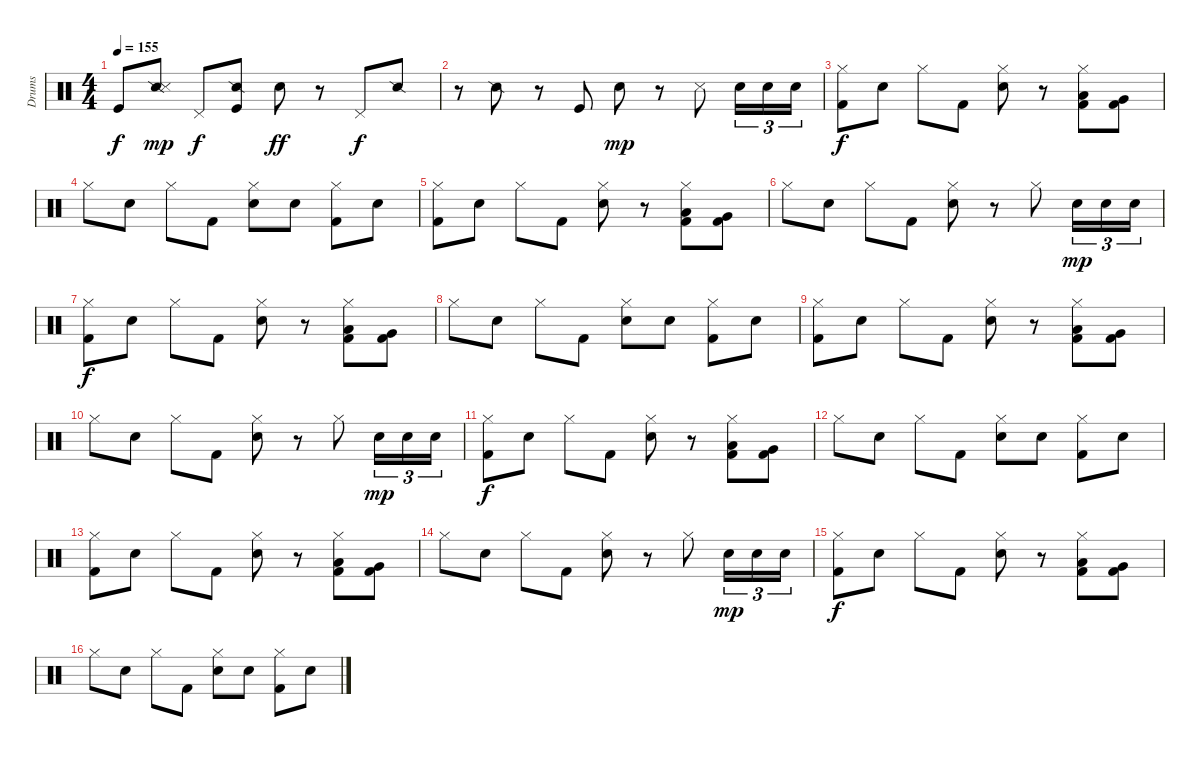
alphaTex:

\track ("Drums" "Drums") {instrument percussion}
\staff {score}
\articulation defaults
\ts (4 4)
\tempo 155
\clef neutral
\ks c "Kick (hit)".8{dy f}
("Snare (side stick) 2" "Snare (side stick) 3").8{dy mp} "Pedal Hi-Hat (hit)".8{dy f} ("Snare (side stick) 2" "Kick (hit)").8 "Electric Snare (hit)".8{dy ff} r.8 "Pedal Hi-Hat (hit)".8{dy f} "Snare (side stick) 2".8 |
r.8 "Snare (side stick) 2".8 r.8 "Kick (hit)".8 "Electric Snare (hit)".8{dy mp} r.8 "Snare (side stick) 3".8 "Electric Snare (hit)".16{tu (3 2)} "Electric Snare (hit)".16{tu (3 2)} "Electric Snare (hit)".16{tu (3 2)} |
("Hi-Hat (closed)" "Kick (hit) 2").8{dy f} "Electric Snare (hit)".8 "Hi-Hat (closed)".8 "Kick (hit) 2".8 ("Hi-Hat (closed)" "Electric Snare (hit)").8 r.8 ("Hi-Hat (closed)" "Low Tom (hit)" "Kick (hit) 2").8 ("Very Low Tom (hit)" "Kick (hit) 2").8 |
"Hi-Hat (closed)".8 "Electric Snare (hit)".8 "Hi-Hat (closed)".8 "Kick (hit) 2".8 ("Hi-Hat (closed)" "Electric Snare (hit)").8 "Electric Snare (hit)".8 ("Hi-Hat (closed)" "Kick (hit) 2").8 "Electric Snare (hit)".8 |
("Hi-Hat (closed)" "Kick (hit) 2").8 "Electric Snare (hit)".8 "Hi-Hat (closed)".8 "Kick (hit) 2".8 ("Hi-Hat (closed)" "Electric Snare (hit)").8 r.8 ("Hi-Hat (closed)" "Low Tom (hit)" "Kick (hit) 2").8 ("Very Low Tom (hit)" "Kick (hit) 2").8 |
"Hi-Hat (closed)".8 "Electric Snare (hit)".8 "Hi-Hat (closed)".8 "Kick (hit) 2".8 ("Hi-Hat (closed)" "Electric Snare (hit)").8 r.8 "Hi-Hat (closed)".8 "Electric Snare (hit)".16{tu (3 2) dy mp} "Electric Snare (hit)".16{tu (3 2)} "Electric Snare (hit)".16{tu (3 2)} |
("Hi-Hat (closed)" "Kick (hit) 2").8{dy f} "Electric Snare (hit)".8 "Hi-Hat (closed)".8 "Kick (hit) 2".8 ("Hi-Hat (closed)" "Electric Snare (hit)").8 r.8 ("Hi-Hat (closed)" "Low Tom (hit)" "Kick (hit) 2").8 ("Very Low Tom (hit)" "Kick (hit) 2").8 |
"Hi-Hat (closed)".8 "Electric Snare (hit)".8 "Hi-Hat (closed)".8 "Kick (hit) 2".8 ("Hi-Hat (closed)" "Electric Snare (hit)").8 "Electric Snare (hit)".8 ("Hi-Hat (closed)" "Kick (hit) 2").8 "Electric Snare (hit)".8 |
("Hi-Hat (closed)" "Kick (hit) 2").8 "Electric Snare (hit)".8 "Hi-Hat (closed)".8 "Kick (hit) 2".8 ("Hi-Hat (closed)" "Electric Snare (hit)").8 r.8 ("Hi-Hat (closed)" "Low Tom (hit)" "Kick (hit) 2").8 ("Very Low Tom (hit)" "Kick (hit) 2").8 |
"Hi-Hat (closed)".8 "Electric Snare (hit)".8 "Hi-Hat (closed)".8 "Kick (hit) 2".8 ("Hi-Hat (closed)" "Electric Snare (hit)").8 r.8 "Hi-Hat (closed)".8 "Electric Snare (hit)".16{tu (3 2) dy mp} "Electric Snare (hit)".16{tu (3 2)} "Electric Snare (hit)".16{tu (3 2)} |
("Hi-Hat (closed)" "Kick (hit) 2").8{dy f} "Electric Snare (hit)".8 "Hi-Hat (closed)".8 "Kick (hit) 2".8 ("Hi-Hat (closed)" "Electric Snare (hit)").8 r.8 ("Hi-Hat (closed)" "Low Tom (hit)" "Kick (hit) 2").8 ("Very Low Tom (hit)" "Kick (hit) 2").8 |
"Hi-Hat (closed)".8 "Electric Snare (hit)".8 "Hi-Hat (closed)".8 "Kick (hit) 2".8 ("Hi-Hat (closed)" "Electric Snare (hit)").8 "Electric Snare (hit)".8 ("Hi-Hat (closed)" "Kick (hit) 2").8 "Electric Snare (hit)".8 |
("Hi-Hat (closed)" "Kick (hit) 2").8 "Electric Snare (hit)".8 "Hi-Hat (closed)".8 "Kick (hit) 2".8 ("Hi-Hat (closed)" "Electric Snare (hit)").8 r.8 ("Hi-Hat (closed)" "Low Tom (hit)" "Kick (hit) 2").8 ("Very Low Tom (hit)" "Kick (hit) 2").8 |
"Hi-Hat (closed)".8 "Electric Snare (hit)".8 "Hi-Hat (closed)".8 "Kick (hit) 2".8 ("Hi-Hat (closed)" "Electric Snare (hit)").8 r.8 "Hi-Hat (closed)".8 "Electric Snare (hit)".16{tu (3 2) dy mp} "Electric Snare (hit)".16{tu (3 2)} "Electric Snare (hit)".16{tu (3 2)} |
("Hi-Hat (closed)" "Kick (hit) 2").8{dy f} "Electric Snare (hit)".8 "Hi-Hat (closed)".8 "Kick (hit) 2".8 ("Hi-Hat (closed)" "Electric Snare (hit)").8 r.8 ("Hi-Hat (closed)" "Low Tom (hit)" "Kick (hit) 2").8 ("Very Low Tom (hit)" "Kick (hit) 2").8 |
"Hi-Hat (closed)".8 "Electric Snare (hit)".8 "Hi-Hat (closed)".8 "Kick (hit) 2".8 ("Hi-Hat (closed)" "Electric Snare (hit)").8 "Electric Snare (hit)".8 ("Hi-Hat (closed)" "Kick (hit) 2").8 "Electric Snare (hit)".8
